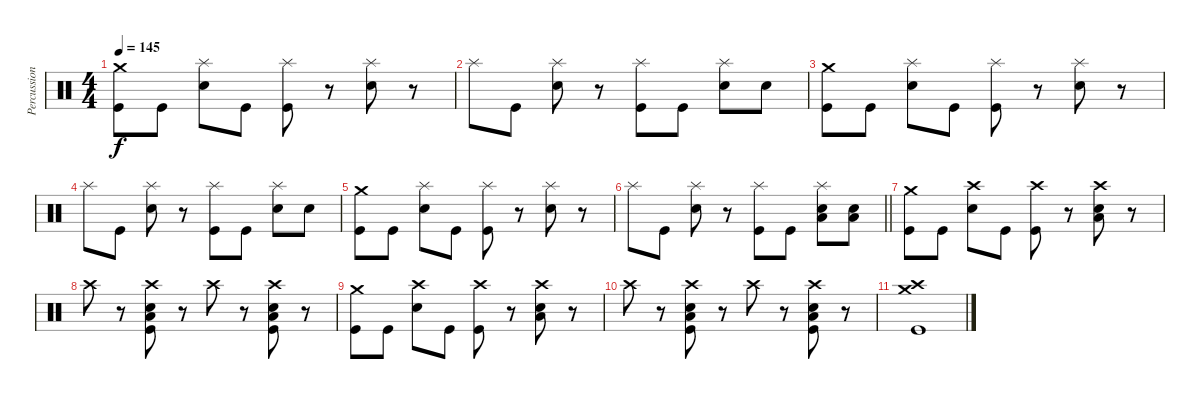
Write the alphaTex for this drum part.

\track ("Percussion" "Percussion") {instrument percussion}
\staff {score}
\articulation defaults
\ts (4 4)
\tempo 145
\clef neutral
\ks c
("Crash medium (hit)" "Kick (hit)").8{dy f} "Kick (hit)".8 ("Splash (hit)" "Snare (hit) 2").8 "Kick (hit)".8 ("Splash (hit)" "Kick (hit)").8 r.8 ("Splash (hit)" "Snare (hit) 2").8 r.8 |
"Splash (hit)".8 "Kick (hit)".8 ("Splash (hit)" "Snare (hit) 2").8 r.8 ("Splash (hit)" "Kick (hit)").8 "Kick (hit)".8 ("Splash (hit)" "Snare (hit) 2").8 "Snare (hit) 2".8 |
("Crash medium (hit)" "Kick (hit)").8 "Kick (hit)".8 ("Splash (hit)" "Snare (hit) 2").8 "Kick (hit)".8 ("Splash (hit)" "Kick (hit)").8 r.8 ("Splash (hit)" "Snare (hit) 2").8 r.8 |
"Splash (hit)".8 "Kick (hit)".8 ("Splash (hit)" "Snare (hit) 2").8 r.8 ("Splash (hit)" "Kick (hit)").8 "Kick (hit)".8 ("Splash (hit)" "Snare (hit) 2").8 "Snare (hit) 2".8 |
("Crash medium (hit)" "Kick (hit)").8 "Kick (hit)".8 ("Splash (hit)" "Snare (hit) 2").8 "Kick (hit)".8 ("Splash (hit)" "Kick (hit)").8 r.8 ("Splash (hit)" "Snare (hit) 2").8 r.8 |
\barLineRight lightlight "Splash (hit)".8 "Kick (hit)".8
("Splash (hit)" "Snare (hit) 2").8 r.8 ("Splash (hit)" "Kick (hit)").8 "Kick (hit)".8 ("Splash (hit)" "Snare (hit) 2" "Low Floor Tom (hit)").8 ("Snare (hit) 2" "Low Floor Tom (hit)").8 |
("Crash medium (hit)" "Kick (hit)").8 "Kick (hit)".8 ("Crash high (hit)" "Snare (hit) 2").8 "Kick (hit)".8 ("Crash high (hit)" "Kick (hit)").8 r.8 ("Crash high (hit)" "Snare (hit) 2" "Low Floor Tom (hit)").8 r.8 |
"Crash high (hit)".8 r.8 ("Crash high (hit)" "Snare (hit) 2" "Low Floor Tom (hit)" "Kick (hit)").8 r.8 "Crash high (hit)".8 r.8 ("Crash high (hit)" "Snare (hit) 2" "Low Floor Tom (hit)" "Kick (hit)").8 r.8 |
("Crash medium (hit)" "Kick (hit)").8 "Kick (hit)".8 ("Crash high (hit)" "Snare (hit) 2").8 "Kick (hit)".8 ("Crash high (hit)" "Kick (hit)").8 r.8 ("Crash high (hit)" "Snare (hit) 2" "Low Floor Tom (hit)").8 r.8 |
"Crash high (hit)".8 r.8 ("Crash high (hit)" "Snare (hit) 2" "Low Floor Tom (hit)" "Kick (hit)").8 r.8 "Crash high (hit)".8 r.8 ("Crash high (hit)" "Snare (hit) 2" "Low Floor Tom (hit)" "Kick (hit)").8 r.8 |
("Crash high (hit)" "Crash medium (hit)" "Kick (hit)").1
